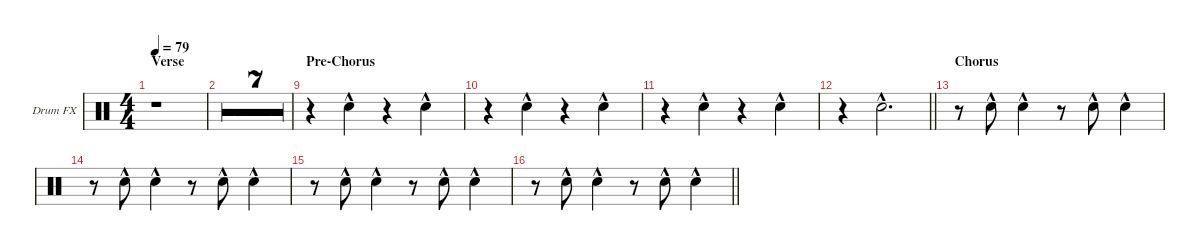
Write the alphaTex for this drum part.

\defaultSystemsLayout 4
\hideDynamics
\bracketExtendMode groupsimilarinstruments
\firstSystemTrackNameOrientation horizontal
\otherSystemsTrackNameOrientation horizontal
\track ("Drumkit FX" "Drum FX") {multiBarRest instrument percussion}
\staff {score}
\articulation defaults
\ts (4 4)
\section ("" "Verse")
\tempo 79
\clef neutral
\ks c
r.1{dy fff} |
r.1 |
r.1 |
r.1 |
r.1 |
r.1 |
r.1 |
\barLineRight lightlight
r.1 |
\section ("" "Pre-Chorus")
r.4 "Snare (hit) 2"{hac}.4 r.4 "Snare (hit) 2"{hac}.4 |
r.4 "Snare (hit) 2"{hac}.4 r.4 "Snare (hit) 2"{hac}.4 |
r.4 "Snare (hit) 2"{hac}.4 r.4 "Snare (hit) 2"{hac}.4 |
\barLineRight lightlight
r.4 "Snare (hit) 2"{hac}.2{d} |
\section ("" "Chorus")
r.8 "Snare (hit) 2"{hac}.8{dy mf} "Snare (hit) 2"{hac}.4{dy fff} r.8 "Snare (hit) 2"{hac}.8{dy mf} "Snare (hit) 2"{hac}.4{dy fff} |
r.8 "Snare (hit) 2"{hac}.8{dy mf} "Snare (hit) 2"{hac}.4{dy fff} r.8 "Snare (hit) 2"{hac}.8{dy mf} "Snare (hit) 2"{hac}.4{dy fff} |
r.8 "Snare (hit) 2"{hac}.8{dy mf} "Snare (hit) 2"{hac}.4{dy fff} r.8 "Snare (hit) 2"{hac}.8{dy mf} "Snare (hit) 2"{hac}.4{dy fff} |
\barLineRight lightlight
r.8 "Snare (hit) 2"{hac}.8{dy mf} "Snare (hit) 2"{hac}.4{dy fff} r.8 "Snare (hit) 2"{hac}.8{dy mf} "Snare (hit) 2"{hac}.4{dy fff}
